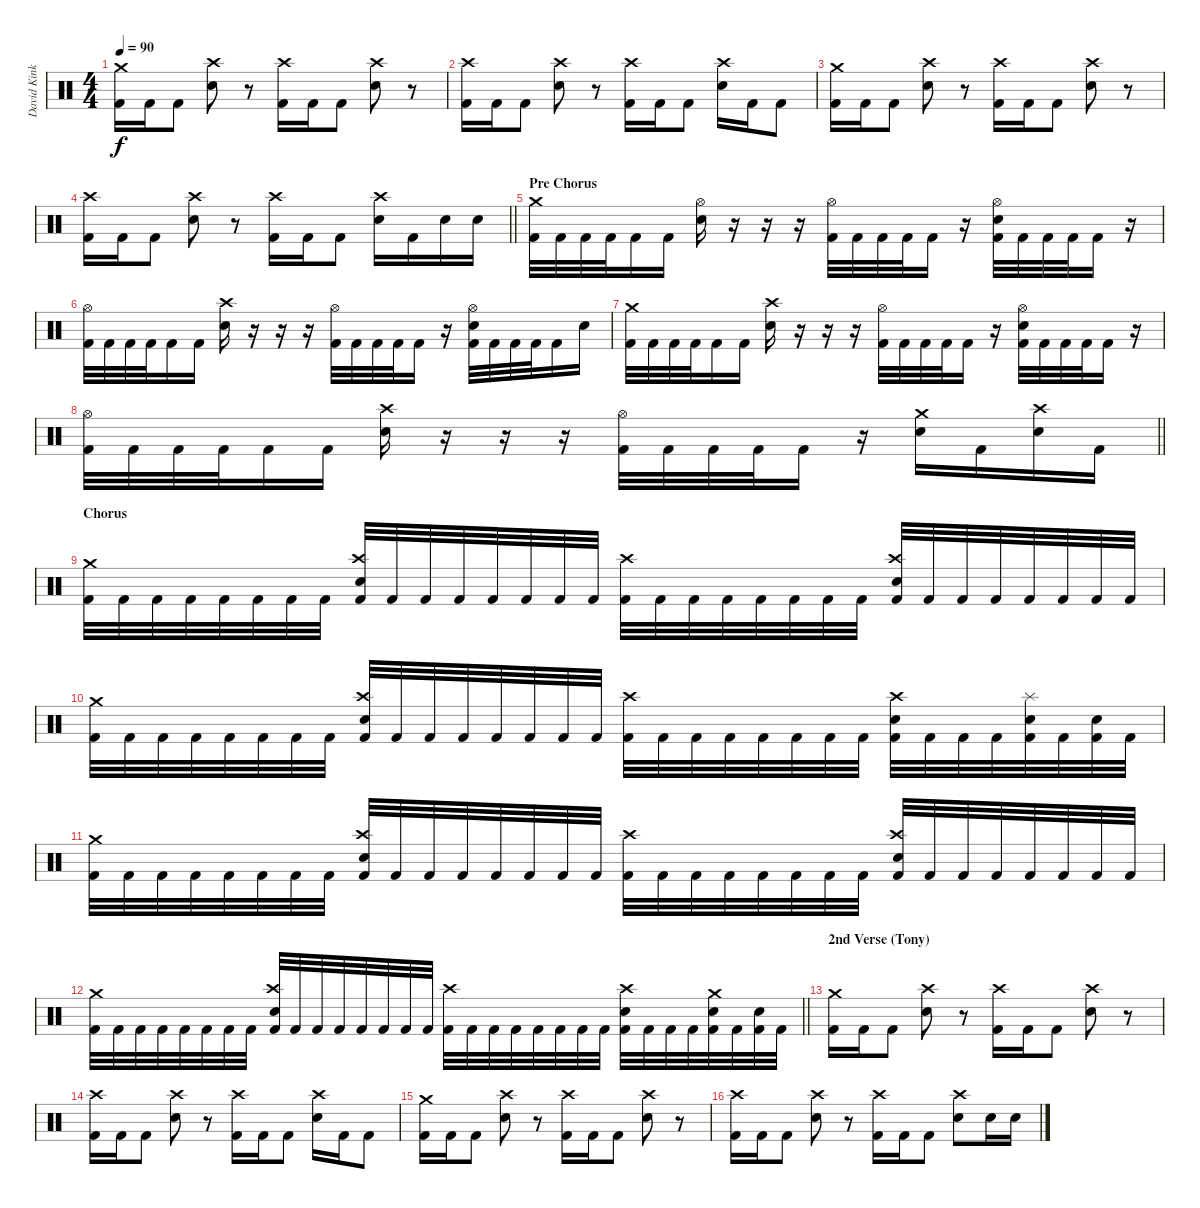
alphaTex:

\track ("David Kinkade" "David Kink") {instrument percussion}
\staff {score}
\articulation defaults
\ts (4 4)
\tempo 90
\clef neutral
\ks c
("Crash medium (hit)" "Kick (hit) 2").16{dy f} "Kick (hit) 2".16 "Kick (hit) 2".8 ("Crash high (hit)" "Snare (hit) 2").8 r.8 ("Crash high (hit)" "Kick (hit) 2").16 "Kick (hit) 2".16 "Kick (hit) 2".8 ("Crash high (hit)" "Snare (hit) 2").8 r.8 |
("Crash high (hit)" "Kick (hit) 2").16 "Kick (hit) 2".16 "Kick (hit) 2".8 ("Crash high (hit)" "Snare (hit) 2").8 r.8 ("Crash high (hit)" "Kick (hit) 2").16 "Kick (hit) 2".16 "Kick (hit) 2".8 ("Crash high (hit)" "Snare (hit) 2").16 "Kick (hit) 2".16 "Kick (hit) 2".8 |
("Crash medium (hit)" "Kick (hit) 2").16 "Kick (hit) 2".16 "Kick (hit) 2".8 ("Crash high (hit)" "Snare (hit) 2").8 r.8 ("Crash high (hit)" "Kick (hit) 2").16 "Kick (hit) 2".16 "Kick (hit) 2".8 ("Crash high (hit)" "Snare (hit) 2").8 r.8 |
\barLineRight lightlight
("Crash high (hit)" "Kick (hit) 2").16 "Kick (hit) 2".16 "Kick (hit) 2".8 ("Crash high (hit)" "Snare (hit) 2").8 r.8 ("Crash high (hit)" "Kick (hit) 2").16 "Kick (hit) 2".16 "Kick (hit) 2".8 ("Crash high (hit)" "Snare (hit) 2").16 "Kick (hit) 2".16 "Snare (hit) 2".16 "Snare (hit) 2".16 |
\section ("" "Pre Chorus")
("Crash medium (hit)" "Kick (hit) 2").32 "Kick (hit) 2".32 "Kick (hit) 2".32 "Kick (hit) 2".32 "Kick (hit) 2".16 "Kick (hit) 2".16 ("Hi-Hat (open)" "Snare (hit) 2").16 r.16 r.16 r.16 ("Hi-Hat (open)" "Kick (hit) 2").32 "Kick (hit) 2".32 "Kick (hit) 2".32 "Kick (hit) 2".32 "Kick (hit) 2".16 r.16 ("Hi-Hat (open)" "Snare (hit) 2" "Kick (hit) 2").32 "Kick (hit) 2".32 "Kick (hit) 2".32 "Kick (hit) 2".32 "Kick (hit) 2".16 r.16 |
("Hi-Hat (open)" "Kick (hit) 2").32 "Kick (hit) 2".32 "Kick (hit) 2".32 "Kick (hit) 2".32 "Kick (hit) 2".16 "Kick (hit) 2".16 ("Crash high (hit)" "Snare (hit) 2").16 r.16 r.16 r.16 ("Hi-Hat (open)" "Kick (hit) 2").32 "Kick (hit) 2".32 "Kick (hit) 2".32 "Kick (hit) 2".32 "Kick (hit) 2".16 r.16 ("Hi-Hat (open)" "Snare (hit) 2" "Kick (hit) 2").32 "Kick (hit) 2".32 "Kick (hit) 2".32 "Kick (hit) 2".32 "Kick (hit) 2".16 "Snare (hit) 2".16 |
("Crash medium (hit)" "Kick (hit) 2").32 "Kick (hit) 2".32 "Kick (hit) 2".32 "Kick (hit) 2".32 "Kick (hit) 2".16 "Kick (hit) 2".16 ("Crash high (hit)" "Snare (hit) 2").16 r.16 r.16 r.16 ("Hi-Hat (open)" "Kick (hit) 2").32 "Kick (hit) 2".32 "Kick (hit) 2".32 "Kick (hit) 2".32 "Kick (hit) 2".16 r.16 ("Hi-Hat (open)" "Snare (hit) 2" "Kick (hit) 2").32 "Kick (hit) 2".32 "Kick (hit) 2".32 "Kick (hit) 2".32 "Kick (hit) 2".16 r.16 |
\barLineRight lightlight
("Hi-Hat (open)" "Kick (hit) 2").32 "Kick (hit) 2".32 "Kick (hit) 2".32 "Kick (hit) 2".32 "Kick (hit) 2".16 "Kick (hit) 2".16 ("Crash high (hit)" "Snare (hit) 2").16 r.16 r.16 r.16 ("Hi-Hat (open)" "Kick (hit) 2").32 "Kick (hit) 2".32 "Kick (hit) 2".32 "Kick (hit) 2".32 "Kick (hit) 2".16 r.16 ("Crash medium (hit)" "Snare (hit) 2").16 "Kick (hit) 2".16 ("Crash high (hit)" "Snare (hit) 2").16 "Kick (hit) 2".16 |
\section ("" "Chorus")
("Crash medium (hit)" "Kick (hit) 2").32 "Kick (hit) 2".32 "Kick (hit) 2".32 "Kick (hit) 2".32 "Kick (hit) 2".32 "Kick (hit) 2".32 "Kick (hit) 2".32 "Kick (hit) 2".32 ("Crash high (hit)" "Snare (hit) 2" "Kick (hit) 2").32 "Kick (hit) 2".32 "Kick (hit) 2".32 "Kick (hit) 2".32 "Kick (hit) 2".32 "Kick (hit) 2".32 "Kick (hit) 2".32 "Kick (hit) 2".32 ("Crash high (hit)" "Kick (hit) 2").32 "Kick (hit) 2".32 "Kick (hit) 2".32 "Kick (hit) 2".32 "Kick (hit) 2".32 "Kick (hit) 2".32 "Kick (hit) 2".32 "Kick (hit) 2".32 ("Crash high (hit)" "Snare (hit) 2" "Kick (hit) 2").32 "Kick (hit) 2".32 "Kick (hit) 2".32 "Kick (hit) 2".32 "Kick (hit) 2".32 "Kick (hit) 2".32 "Kick (hit) 2".32 "Kick (hit) 2".32 |
("Crash medium (hit)" "Kick (hit) 2").32 "Kick (hit) 2".32 "Kick (hit) 2".32 "Kick (hit) 2".32 "Kick (hit) 2".32 "Kick (hit) 2".32 "Kick (hit) 2".32 "Kick (hit) 2".32 ("Crash high (hit)" "Snare (hit) 2" "Kick (hit) 2").32 "Kick (hit) 2".32 "Kick (hit) 2".32 "Kick (hit) 2".32 "Kick (hit) 2".32 "Kick (hit) 2".32 "Kick (hit) 2".32 "Kick (hit) 2".32 ("Crash high (hit)" "Kick (hit) 2").32 "Kick (hit) 2".32 "Kick (hit) 2".32 "Kick (hit) 2".32 "Kick (hit) 2".32 "Kick (hit) 2".32 "Kick (hit) 2".32 "Kick (hit) 2".32 ("Crash high (hit)" "Snare (hit) 2" "Kick (hit) 2").32 "Kick (hit) 2".32 "Kick (hit) 2".32 "Kick (hit) 2".32 ("Splash (hit)" "Snare (hit) 2" "Kick (hit) 2").32 "Kick (hit) 2".32 ("Snare (hit) 2" "Kick (hit) 2").32 "Kick (hit) 2".32 |
("Crash medium (hit)" "Kick (hit) 2").32 "Kick (hit) 2".32 "Kick (hit) 2".32 "Kick (hit) 2".32 "Kick (hit) 2".32 "Kick (hit) 2".32 "Kick (hit) 2".32 "Kick (hit) 2".32 ("Crash high (hit)" "Snare (hit) 2" "Kick (hit) 2").32 "Kick (hit) 2".32 "Kick (hit) 2".32 "Kick (hit) 2".32 "Kick (hit) 2".32 "Kick (hit) 2".32 "Kick (hit) 2".32 "Kick (hit) 2".32 ("Crash high (hit)" "Kick (hit) 2").32 "Kick (hit) 2".32 "Kick (hit) 2".32 "Kick (hit) 2".32 "Kick (hit) 2".32 "Kick (hit) 2".32 "Kick (hit) 2".32 "Kick (hit) 2".32 ("Crash high (hit)" "Snare (hit) 2" "Kick (hit) 2").32 "Kick (hit) 2".32 "Kick (hit) 2".32 "Kick (hit) 2".32 "Kick (hit) 2".32 "Kick (hit) 2".32 "Kick (hit) 2".32 "Kick (hit) 2".32 |
\barLineRight lightlight
("Crash medium (hit)" "Kick (hit) 2").32 "Kick (hit) 2".32 "Kick (hit) 2".32 "Kick (hit) 2".32 "Kick (hit) 2".32 "Kick (hit) 2".32 "Kick (hit) 2".32 "Kick (hit) 2".32 ("Crash high (hit)" "Snare (hit) 2" "Kick (hit) 2").32 "Kick (hit) 2".32 "Kick (hit) 2".32 "Kick (hit) 2".32 "Kick (hit) 2".32 "Kick (hit) 2".32 "Kick (hit) 2".32 "Kick (hit) 2".32 ("Crash high (hit)" "Kick (hit) 2").32 "Kick (hit) 2".32 "Kick (hit) 2".32 "Kick (hit) 2".32 "Kick (hit) 2".32 "Kick (hit) 2".32 "Kick (hit) 2".32 "Kick (hit) 2".32 ("Crash high (hit)" "Snare (hit) 2" "Kick (hit) 2").32 "Kick (hit) 2".32 "Kick (hit) 2".32 "Kick (hit) 2".32 ("Crash medium (hit)" "Snare (hit) 2" "Kick (hit) 2").32 "Kick (hit) 2".32 ("Snare (hit) 2" "Kick (hit) 2").32 "Kick (hit) 2".32 |
\section ("" "2nd Verse (Tony)")
("Crash medium (hit)" "Kick (hit) 2").16 "Kick (hit) 2".16 "Kick (hit) 2".8 ("Crash high (hit)" "Snare (hit) 2").8 r.8 ("Crash high (hit)" "Kick (hit) 2").16 "Kick (hit) 2".16 "Kick (hit) 2".8 ("Crash high (hit)" "Snare (hit) 2").8 r.8 |
("Crash high (hit)" "Kick (hit) 2").16 "Kick (hit) 2".16 "Kick (hit) 2".8 ("Crash high (hit)" "Snare (hit) 2").8 r.8 ("Crash high (hit)" "Kick (hit) 2").16 "Kick (hit) 2".16 "Kick (hit) 2".8 ("Crash high (hit)" "Snare (hit) 2").16 "Kick (hit) 2".16 "Kick (hit) 2".8 |
("Crash medium (hit)" "Kick (hit) 2").16 "Kick (hit) 2".16 "Kick (hit) 2".8 ("Crash high (hit)" "Snare (hit) 2").8 r.8 ("Crash high (hit)" "Kick (hit) 2").16 "Kick (hit) 2".16 "Kick (hit) 2".8 ("Crash high (hit)" "Snare (hit) 2").8 r.8 |
("Crash high (hit)" "Kick (hit) 2").16 "Kick (hit) 2".16 "Kick (hit) 2".8 ("Crash high (hit)" "Snare (hit) 2").8 r.8 ("Crash high (hit)" "Kick (hit) 2").16 "Kick (hit) 2".16 "Kick (hit) 2".8 ("Crash high (hit)" "Snare (hit) 2").8 "Snare (hit) 2".16 "Snare (hit) 2".16
